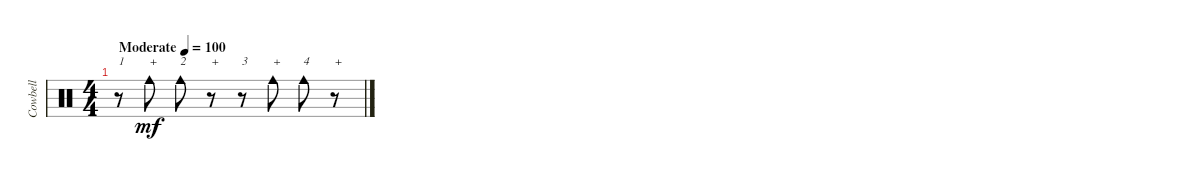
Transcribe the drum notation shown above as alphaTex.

\track ("Cowbell" "Cowbell") {instrument percussion}
\staff {score}
\articulation defaults
\ts (4 4)
\tempo (100 "Moderate")
\clef neutral
\ks c
r.8{txt "1" dy mf} "Cowbell medium (hit)".8{txt "+"} "Cowbell medium (hit)".8{txt "2"} r.8{txt "+"} r.8{txt "3"} "Cowbell medium (hit)".8{txt "+"} "Cowbell medium (hit)".8{txt "4"} r.8{txt "+"}
